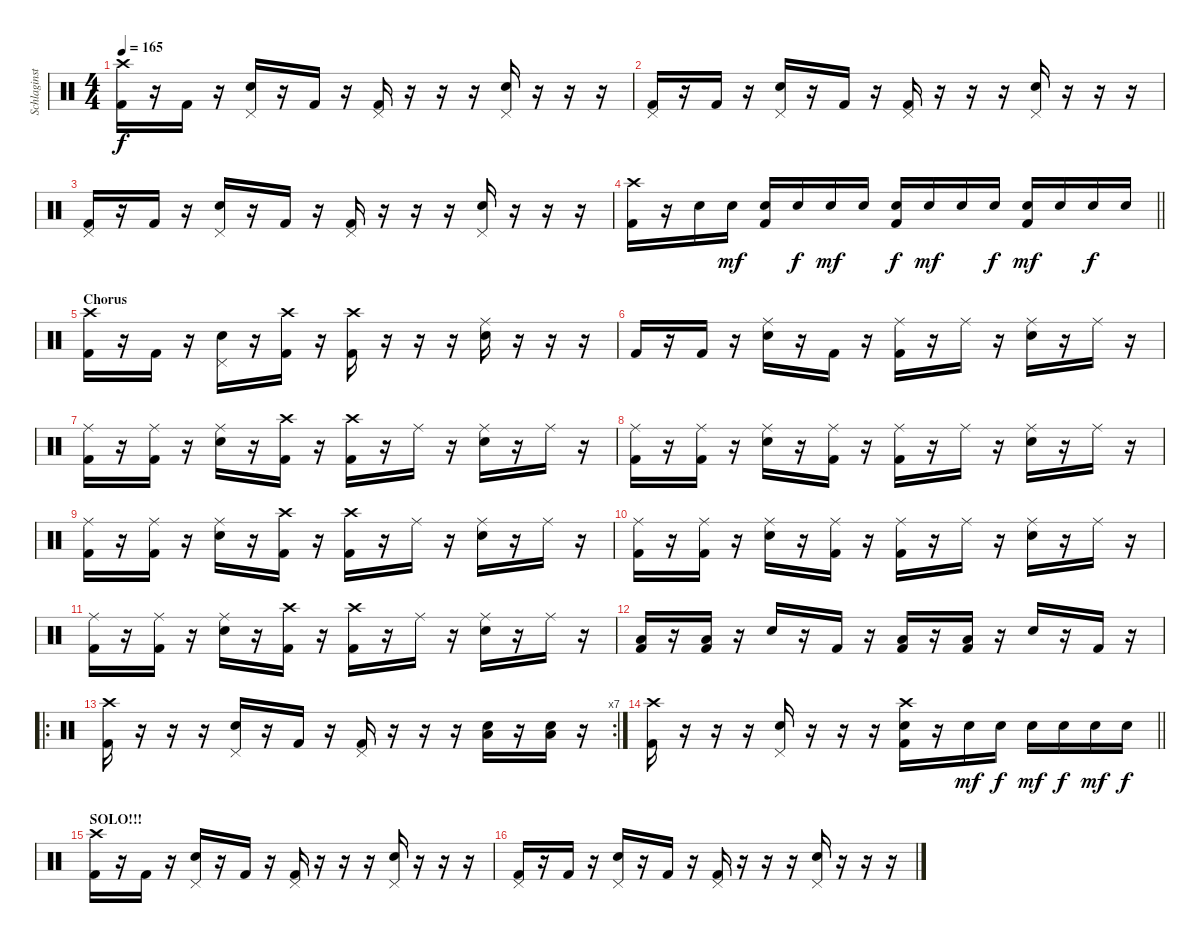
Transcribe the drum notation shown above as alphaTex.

\track ("Schlaginstrumente - Auswahl" "Schlaginst") {instrument percussion}
\staff {score}
\articulation defaults
\ts (4 4)
\tempo 165
\clef neutral
\ks c
("Crash high (hit)" "Kick (hit) 2").16{dy f} r.16 "Kick (hit) 2".16 r.16 ("Pedal Hi-Hat (hit)" "Electric Snare (hit)").16 r.16 "Kick (hit) 2".16 r.16 ("Pedal Hi-Hat (hit)" "Kick (hit) 2").16 r.16 r.16 r.16 ("Pedal Hi-Hat (hit)" "Electric Snare (hit)").16 r.16 r.16 r.16 |
("Pedal Hi-Hat (hit)" "Kick (hit) 2").16 r.16 "Kick (hit) 2".16 r.16 ("Pedal Hi-Hat (hit)" "Electric Snare (hit)").16 r.16 "Kick (hit) 2".16 r.16 ("Pedal Hi-Hat (hit)" "Kick (hit) 2").16 r.16 r.16 r.16 ("Pedal Hi-Hat (hit)" "Electric Snare (hit)").16 r.16 r.16 r.16 |
("Pedal Hi-Hat (hit)" "Kick (hit) 2").16 r.16 "Kick (hit) 2".16 r.16 ("Pedal Hi-Hat (hit)" "Electric Snare (hit)").16 r.16 "Kick (hit) 2".16 r.16 ("Pedal Hi-Hat (hit)" "Kick (hit) 2").16 r.16 r.16 r.16 ("Pedal Hi-Hat (hit)" "Electric Snare (hit)").16 r.16 r.16 r.16 |
\barLineRight lightlight
("Crash high (hit)" "Kick (hit) 2").16 r.16 "Electric Snare (hit)".16 "Electric Snare (hit)".16{dy mf} ("Electric Snare (hit)" "Kick (hit) 2").16 "Electric Snare (hit)".16{dy f} "Electric Snare (hit)".16{dy mf} "Electric Snare (hit)".16 ("Electric Snare (hit)" "Kick (hit) 2").16{dy f} "Electric Snare (hit)".16{dy mf} "Electric Snare (hit)".16 "Electric Snare (hit)".16{dy f} ("Electric Snare (hit)" "Kick (hit) 2").16{dy mf} "Electric Snare (hit)".16 "Electric Snare (hit)".16{dy f} "Electric Snare (hit)".16 |
\section ("" "Chorus")
("Crash high (hit)" "Kick (hit) 2").16 r.16 "Kick (hit) 2".16 r.16 ("Pedal Hi-Hat (hit)" "Electric Snare (hit)").16 r.16 ("Crash high (hit)" "Kick (hit) 2").16 r.16 ("Crash high (hit)" "Kick (hit) 2").16 r.16 r.16 r.16 ("Ride (middle)" "Electric Snare (hit)").16 r.16 r.16 r.16 |
"Kick (hit) 2".16 r.16 "Kick (hit) 2".16 r.16 ("Ride (middle)" "Electric Snare (hit)").16 r.16 "Kick (hit) 2".16 r.16 ("Ride (middle)" "Kick (hit) 2").16 r.16 "Ride (middle)".16 r.16 ("Ride (middle)" "Electric Snare (hit)").16 r.16 "Ride (middle)".16 r.16 |
("Ride (middle)" "Kick (hit) 2").16 r.16 ("Ride (middle)" "Kick (hit) 2").16 r.16 ("Ride (middle)" "Electric Snare (hit)").16 r.16 ("Crash high (hit)" "Kick (hit) 2").16 r.16 ("Crash high (hit)" "Kick (hit) 2").16 r.16 "Ride (middle)".16 r.16 ("Ride (middle)" "Electric Snare (hit)").16 r.16 "Ride (middle)".16 r.16 |
("Ride (middle)" "Kick (hit) 2").16 r.16 ("Ride (middle)" "Kick (hit) 2").16 r.16 ("Ride (middle)" "Electric Snare (hit)").16 r.16 ("Ride (middle)" "Kick (hit) 2").16 r.16 ("Ride (middle)" "Kick (hit) 2").16 r.16 "Ride (middle)".16 r.16 ("Ride (middle)" "Electric Snare (hit)").16 r.16 "Ride (middle)".16 r.16 |
("Ride (middle)" "Kick (hit) 2").16 r.16 ("Ride (middle)" "Kick (hit) 2").16 r.16 ("Ride (middle)" "Electric Snare (hit)").16 r.16 ("Crash high (hit)" "Kick (hit) 2").16 r.16 ("Crash high (hit)" "Kick (hit) 2").16 r.16 "Ride (middle)".16 r.16 ("Ride (middle)" "Electric Snare (hit)").16 r.16 "Ride (middle)".16 r.16 |
("Ride (middle)" "Kick (hit) 2").16 r.16 ("Ride (middle)" "Kick (hit) 2").16 r.16 ("Ride (middle)" "Electric Snare (hit)").16 r.16 ("Ride (middle)" "Kick (hit) 2").16 r.16 ("Ride (middle)" "Kick (hit) 2").16 r.16 "Ride (middle)".16 r.16 ("Ride (middle)" "Electric Snare (hit)").16 r.16 "Ride (middle)".16 r.16 |
("Ride (middle)" "Kick (hit) 2").16 r.16 ("Ride (middle)" "Kick (hit) 2").16 r.16 ("Ride (middle)" "Electric Snare (hit)").16 r.16 ("Crash high (hit)" "Kick (hit) 2").16 r.16 ("Crash high (hit)" "Kick (hit) 2").16 r.16 "Ride (middle)".16 r.16 ("Ride (middle)" "Electric Snare (hit)").16 r.16 "Ride (middle)".16 r.16 |
("Low Floor Tom (hit)" "Kick (hit) 2").16 r.16 ("Low Floor Tom (hit)" "Kick (hit) 2").16 r.16 "Electric Snare (hit)".16 r.16 "Kick (hit) 2".16 r.16 ("Low Floor Tom (hit)" "Kick (hit) 2").16 r.16 ("Low Floor Tom (hit)" "Kick (hit) 2").16 r.16 "Electric Snare (hit)".16 r.16 "Kick (hit) 2".16 r.16 |
\ro
\rc 7
("Crash high (hit)" "Kick (hit) 2").16 r.16 r.16 r.16 ("Pedal Hi-Hat (hit)" "Electric Snare (hit)").16 r.16 "Kick (hit) 2".16 r.16 ("Pedal Hi-Hat (hit)" "Kick (hit) 2").16 r.16 r.16 r.16 ("Electric Snare (hit)" "Low Floor Tom (hit)").16 r.16 ("Electric Snare (hit)" "Low Floor Tom (hit)").16 r.16 |
\barLineRight lightlight
("Crash high (hit)" "Kick (hit) 2").16 r.16 r.16 r.16 ("Pedal Hi-Hat (hit)" "Electric Snare (hit)").16 r.16 r.16 r.16 ("Crash high (hit)" "Electric Snare (hit)" "Kick (hit) 2").16 r.16 "Electric Snare (hit)".16{dy mf} "Electric Snare (hit)".16{dy f} "Electric Snare (hit)".16{dy mf} "Electric Snare (hit)".16{dy f} "Electric Snare (hit)".16{dy mf} "Electric Snare (hit)".16{dy f} |
\section ("" "SOLO!!!")
("Crash high (hit)" "Kick (hit) 2").16 r.16 "Kick (hit) 2".16 r.16 ("Pedal Hi-Hat (hit)" "Electric Snare (hit)").16 r.16 "Kick (hit) 2".16 r.16 ("Pedal Hi-Hat (hit)" "Kick (hit) 2").16 r.16 r.16 r.16 ("Pedal Hi-Hat (hit)" "Electric Snare (hit)").16 r.16 r.16 r.16 |
("Pedal Hi-Hat (hit)" "Kick (hit) 2").16 r.16 "Kick (hit) 2".16 r.16 ("Pedal Hi-Hat (hit)" "Electric Snare (hit)").16 r.16 "Kick (hit) 2".16 r.16 ("Pedal Hi-Hat (hit)" "Kick (hit) 2").16 r.16 r.16 r.16 ("Pedal Hi-Hat (hit)" "Electric Snare (hit)").16 r.16 r.16 r.16
